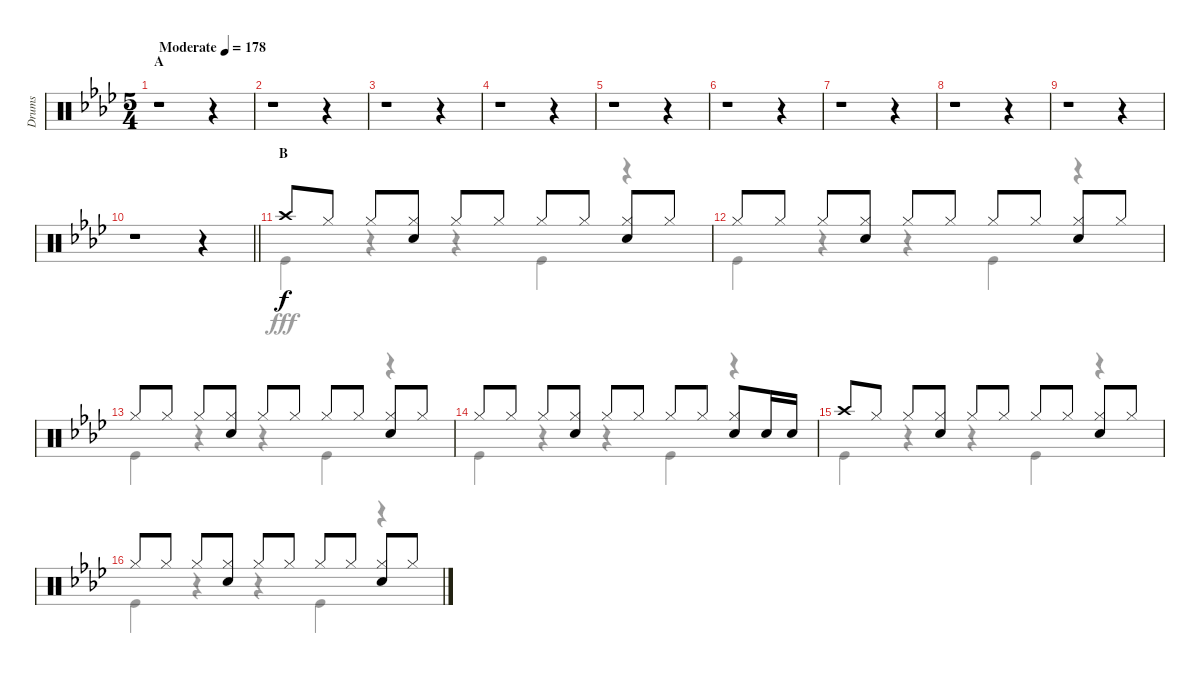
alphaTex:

\track ("Drums" "Drums") {instrument percussion}
\staff {score}
\articulation defaults
\voice
\ts (5 4)
\section ("" "A")
\tempo (178 "Moderate")
\clef neutral
\ks ab
r.1{dy f} r.4 |
r.1 r.4 |
r.1 r.4 |
r.1 r.4 |
r.1 r.4 |
r.1 r.4 |
r.1 r.4 |
r.1 r.4 |
r.1 r.4 |
\barLineRight lightlight
r.1 r.4 |
\section ("" "B")
"Crash high (hit)".8 "Hi-Hat (closed)".8 "Hi-Hat (closed)".8 ("Hi-Hat (closed)" "Snare (hit) 2").8 "Hi-Hat (closed)".8 "Hi-Hat (closed)".8 "Hi-Hat (closed)".8 "Hi-Hat (closed)".8 ("Hi-Hat (closed)" "Snare (hit) 2").8 "Hi-Hat (closed)".8 |
"Hi-Hat (closed)".8 "Hi-Hat (closed)".8 "Hi-Hat (closed)".8 ("Hi-Hat (closed)" "Snare (hit) 2").8 "Hi-Hat (closed)".8 "Hi-Hat (closed)".8 "Hi-Hat (closed)".8 "Hi-Hat (closed)".8 ("Hi-Hat (closed)" "Snare (hit) 2").8 "Hi-Hat (closed)".8 |
"Hi-Hat (closed)".8 "Hi-Hat (closed)".8 "Hi-Hat (closed)".8 ("Hi-Hat (closed)" "Snare (hit) 2").8 "Hi-Hat (closed)".8 "Hi-Hat (closed)".8 "Hi-Hat (closed)".8 "Hi-Hat (closed)".8 ("Hi-Hat (closed)" "Snare (hit) 2").8 "Hi-Hat (closed)".8 |
"Hi-Hat (closed)".8 "Hi-Hat (closed)".8 "Hi-Hat (closed)".8 ("Hi-Hat (closed)" "Snare (hit) 2").8 "Hi-Hat (closed)".8 "Hi-Hat (closed)".8 "Hi-Hat (closed)".8 "Hi-Hat (closed)".8 ("Hi-Hat (closed)" "Snare (hit) 2").8 "Snare (hit) 2".16 "Snare (hit) 2".16 |
"Crash high (hit)".8 "Hi-Hat (closed)".8 "Hi-Hat (closed)".8 ("Hi-Hat (closed)" "Snare (hit) 2").8 "Hi-Hat (closed)".8 "Hi-Hat (closed)".8 "Hi-Hat (closed)".8 "Hi-Hat (closed)".8 ("Hi-Hat (closed)" "Snare (hit) 2").8 "Hi-Hat (closed)".8 |
"Hi-Hat (closed)".8 "Hi-Hat (closed)".8 "Hi-Hat (closed)".8 ("Hi-Hat (closed)" "Snare (hit) 2").8 "Hi-Hat (closed)".8 "Hi-Hat (closed)".8 "Hi-Hat (closed)".8 "Hi-Hat (closed)".8 ("Hi-Hat (closed)" "Snare (hit) 2").8 "Hi-Hat (closed)".8
\voice
\clef neutral
\ottava regular
\simile none
\ks ab
r.1{dy fff} r.4 |
r.1 r.4 |
r.1 r.4 |
r.1 r.4 |
r.1 r.4 |
r.1 r.4 |
r.1 r.4 |
r.1 r.4 |
r.1 r.4 |
\barLineRight lightlight
r.1 r.4 |
"Kick (hit)".4 r.4 r.4 "Kick (hit)".4 r.4 |
"Kick (hit)".4 r.4 r.4 "Kick (hit)".4 r.4 |
"Kick (hit)".4 r.4 r.4 "Kick (hit)".4 r.4 |
"Kick (hit)".4 r.4 r.4 "Kick (hit)".4 r.4 |
"Kick (hit)".4 r.4 r.4 "Kick (hit)".4 r.4 |
"Kick (hit)".4 r.4 r.4 "Kick (hit)".4 r.4
